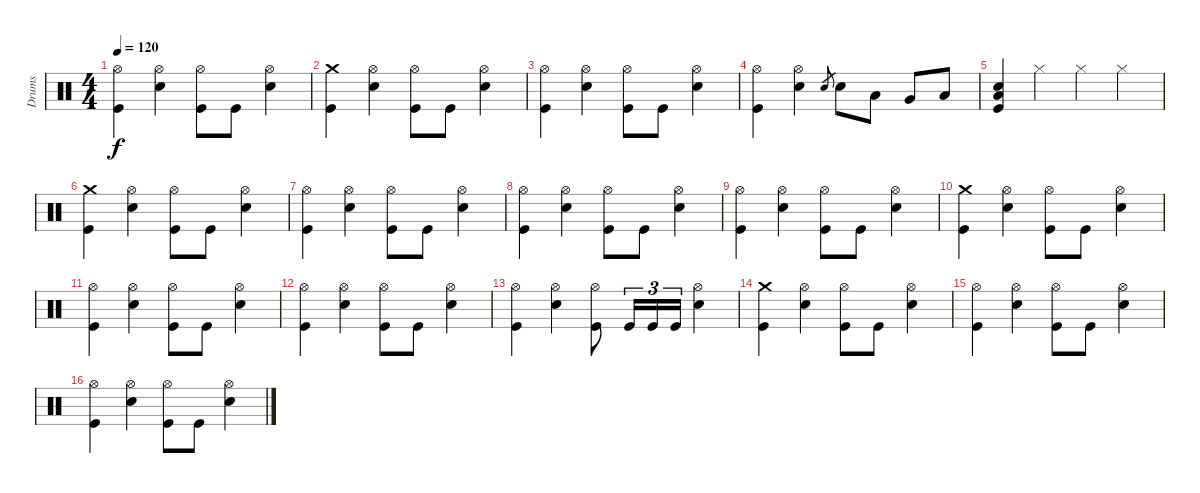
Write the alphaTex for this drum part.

\track ("Drums" "Drums") {instrument percussion}
\staff {score}
\articulation defaults
\ts (4 4)
\tempo 120
\clef neutral
\ks c
("Hi-Hat (open)" "Kick (hit)").4{dy f} ("Hi-Hat (open)" "Snare (hit) 2").4 ("Hi-Hat (open)" "Kick (hit)").8 "Kick (hit)".8 ("Hi-Hat (open)" "Snare (hit) 2").4 |
("Crash medium (hit)" "Kick (hit)").4 ("Hi-Hat (open)" "Snare (hit) 2").4 ("Hi-Hat (open)" "Kick (hit)").8 "Kick (hit)".8 ("Hi-Hat (open)" "Snare (hit) 2").4 |
("Hi-Hat (open)" "Kick (hit)").4 ("Hi-Hat (open)" "Snare (hit) 2").4 ("Hi-Hat (open)" "Kick (hit)").8 "Kick (hit)".8 ("Hi-Hat (open)" "Snare (hit) 2").4 |
("Hi-Hat (open)" "Kick (hit)").4 ("Hi-Hat (open)" "Snare (hit) 2").4 "Snare (hit) 2".8{gr} "Snare (hit) 2".8 "Low Tom (hit)".8 "Very Low Tom (hit)".8 "Low Floor Tom (hit)".8 |
("Low Floor Tom (hit)" "Snare (hit) 2" "Kick (hit)").4 "Hi-Hat (closed)".4 "Hi-Hat (closed)".4 "Hi-Hat (closed)".4 |
("Crash medium (hit)" "Kick (hit)").4 ("Hi-Hat (open)" "Snare (hit) 2").4 ("Hi-Hat (open)" "Kick (hit)").8 "Kick (hit)".8 ("Hi-Hat (open)" "Snare (hit) 2").4 |
("Hi-Hat (open)" "Kick (hit)").4 ("Hi-Hat (open)" "Snare (hit) 2").4 ("Hi-Hat (open)" "Kick (hit)").8 "Kick (hit)".8 ("Hi-Hat (open)" "Snare (hit) 2").4 |
("Hi-Hat (open)" "Kick (hit)").4 ("Hi-Hat (open)" "Snare (hit) 2").4 ("Hi-Hat (open)" "Kick (hit)").8 "Kick (hit)".8 ("Hi-Hat (open)" "Snare (hit) 2").4 |
("Hi-Hat (open)" "Kick (hit)").4 ("Hi-Hat (open)" "Snare (hit) 2").4 ("Hi-Hat (open)" "Kick (hit)").8 "Kick (hit)".8 ("Hi-Hat (open)" "Snare (hit) 2").4 |
("Crash medium (hit)" "Kick (hit)").4 ("Hi-Hat (open)" "Snare (hit) 2").4 ("Hi-Hat (open)" "Kick (hit)").8 "Kick (hit)".8 ("Hi-Hat (open)" "Snare (hit) 2").4 |
("Hi-Hat (open)" "Kick (hit)").4 ("Hi-Hat (open)" "Snare (hit) 2").4 ("Hi-Hat (open)" "Kick (hit)").8 "Kick (hit)".8 ("Hi-Hat (open)" "Snare (hit) 2").4 |
("Hi-Hat (open)" "Kick (hit)").4 ("Hi-Hat (open)" "Snare (hit) 2").4 ("Hi-Hat (open)" "Kick (hit)").8 "Kick (hit)".8 ("Hi-Hat (open)" "Snare (hit) 2").4 |
("Hi-Hat (open)" "Kick (hit)").4 ("Hi-Hat (open)" "Snare (hit) 2").4 ("Hi-Hat (open)" "Kick (hit)").8 "Kick (hit)".16{tu (3 2)} "Kick (hit)".16{tu (3 2)} "Kick (hit)".16{tu (3 2)} ("Hi-Hat (open)" "Snare (hit) 2").4 |
("Crash medium (hit)" "Kick (hit)").4 ("Hi-Hat (open)" "Snare (hit) 2").4 ("Hi-Hat (open)" "Kick (hit)").8 "Kick (hit)".8 ("Hi-Hat (open)" "Snare (hit) 2").4 |
("Hi-Hat (open)" "Kick (hit)").4 ("Hi-Hat (open)" "Snare (hit) 2").4 ("Hi-Hat (open)" "Kick (hit)").8 "Kick (hit)".8 ("Hi-Hat (open)" "Snare (hit) 2").4 |
("Hi-Hat (open)" "Kick (hit)").4 ("Hi-Hat (open)" "Snare (hit) 2").4 ("Hi-Hat (open)" "Kick (hit)").8 "Kick (hit)".8 ("Hi-Hat (open)" "Snare (hit) 2").4
